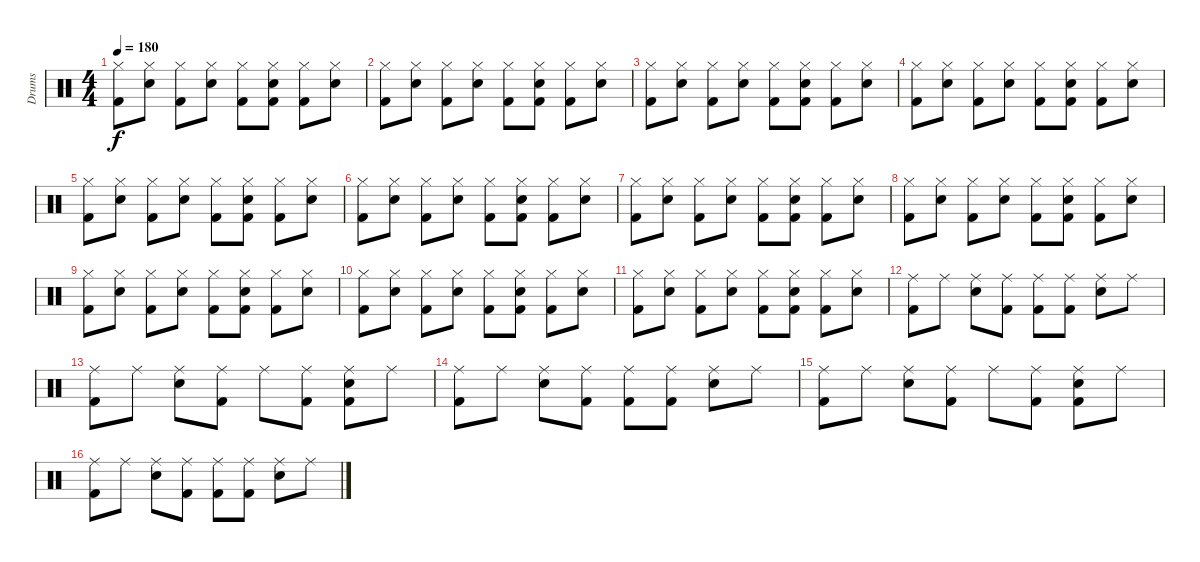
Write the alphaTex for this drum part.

\track ("Drums" "Drums") {instrument percussion}
\staff {score}
\articulation defaults
\ts (4 4)
\tempo 180
\clef neutral
\ks c
("Hi-Hat (closed)" "Kick (hit) 2").8{dy f} ("Hi-Hat (closed)" "Snare (hit) 2").8 ("Hi-Hat (closed)" "Kick (hit) 2").8 ("Hi-Hat (closed)" "Snare (hit) 2").8 ("Hi-Hat (closed)" "Kick (hit) 2").8 ("Hi-Hat (closed)" "Snare (hit) 2" "Kick (hit) 2").8 ("Hi-Hat (closed)" "Kick (hit) 2").8 ("Hi-Hat (closed)" "Snare (hit) 2").8 |
("Hi-Hat (closed)" "Kick (hit) 2").8 ("Hi-Hat (closed)" "Snare (hit) 2").8 ("Hi-Hat (closed)" "Kick (hit) 2").8 ("Hi-Hat (closed)" "Snare (hit) 2").8 ("Hi-Hat (closed)" "Kick (hit) 2").8 ("Hi-Hat (closed)" "Snare (hit) 2" "Kick (hit) 2").8 ("Hi-Hat (closed)" "Kick (hit) 2").8 ("Hi-Hat (closed)" "Snare (hit) 2").8 |
("Hi-Hat (closed)" "Kick (hit) 2").8 ("Hi-Hat (closed)" "Snare (hit) 2").8 ("Hi-Hat (closed)" "Kick (hit) 2").8 ("Hi-Hat (closed)" "Snare (hit) 2").8 ("Hi-Hat (closed)" "Kick (hit) 2").8 ("Hi-Hat (closed)" "Snare (hit) 2" "Kick (hit) 2").8 ("Hi-Hat (closed)" "Kick (hit) 2").8 ("Hi-Hat (closed)" "Snare (hit) 2").8 |
("Hi-Hat (closed)" "Kick (hit) 2").8 ("Hi-Hat (closed)" "Snare (hit) 2").8 ("Hi-Hat (closed)" "Kick (hit) 2").8 ("Hi-Hat (closed)" "Snare (hit) 2").8 ("Hi-Hat (closed)" "Kick (hit) 2").8 ("Hi-Hat (closed)" "Snare (hit) 2" "Kick (hit) 2").8 ("Hi-Hat (closed)" "Kick (hit) 2").8 ("Hi-Hat (closed)" "Snare (hit) 2").8 |
("Hi-Hat (closed)" "Kick (hit) 2").8 ("Hi-Hat (closed)" "Snare (hit) 2").8 ("Hi-Hat (closed)" "Kick (hit) 2").8 ("Hi-Hat (closed)" "Snare (hit) 2").8 ("Hi-Hat (closed)" "Kick (hit) 2").8 ("Hi-Hat (closed)" "Snare (hit) 2" "Kick (hit) 2").8 ("Hi-Hat (closed)" "Kick (hit) 2").8 ("Hi-Hat (closed)" "Snare (hit) 2").8 |
("Hi-Hat (closed)" "Kick (hit) 2").8 ("Hi-Hat (closed)" "Snare (hit) 2").8 ("Hi-Hat (closed)" "Kick (hit) 2").8 ("Hi-Hat (closed)" "Snare (hit) 2").8 ("Hi-Hat (closed)" "Kick (hit) 2").8 ("Hi-Hat (closed)" "Snare (hit) 2" "Kick (hit) 2").8 ("Hi-Hat (closed)" "Kick (hit) 2").8 ("Hi-Hat (closed)" "Snare (hit) 2").8 |
("Hi-Hat (closed)" "Kick (hit) 2").8 ("Hi-Hat (closed)" "Snare (hit) 2").8 ("Hi-Hat (closed)" "Kick (hit) 2").8 ("Hi-Hat (closed)" "Snare (hit) 2").8 ("Hi-Hat (closed)" "Kick (hit) 2").8 ("Hi-Hat (closed)" "Snare (hit) 2" "Kick (hit) 2").8 ("Hi-Hat (closed)" "Kick (hit) 2").8 ("Hi-Hat (closed)" "Snare (hit) 2").8 |
("Hi-Hat (closed)" "Kick (hit) 2").8 ("Hi-Hat (closed)" "Snare (hit) 2").8 ("Hi-Hat (closed)" "Kick (hit) 2").8 ("Hi-Hat (closed)" "Snare (hit) 2").8 ("Hi-Hat (closed)" "Kick (hit) 2").8 ("Hi-Hat (closed)" "Snare (hit) 2" "Kick (hit) 2").8 ("Hi-Hat (closed)" "Kick (hit) 2").8 ("Hi-Hat (closed)" "Snare (hit) 2").8 |
("Hi-Hat (closed)" "Kick (hit) 2").8 ("Hi-Hat (closed)" "Snare (hit) 2").8 ("Hi-Hat (closed)" "Kick (hit) 2").8 ("Hi-Hat (closed)" "Snare (hit) 2").8 ("Hi-Hat (closed)" "Kick (hit) 2").8 ("Hi-Hat (closed)" "Snare (hit) 2" "Kick (hit) 2").8 ("Hi-Hat (closed)" "Kick (hit) 2").8 ("Hi-Hat (closed)" "Snare (hit) 2").8 |
("Hi-Hat (closed)" "Kick (hit) 2").8 ("Hi-Hat (closed)" "Snare (hit) 2").8 ("Hi-Hat (closed)" "Kick (hit) 2").8 ("Hi-Hat (closed)" "Snare (hit) 2").8 ("Hi-Hat (closed)" "Kick (hit) 2").8 ("Hi-Hat (closed)" "Snare (hit) 2" "Kick (hit) 2").8 ("Hi-Hat (closed)" "Kick (hit) 2").8 ("Hi-Hat (closed)" "Snare (hit) 2").8 |
("Hi-Hat (closed)" "Kick (hit) 2").8 ("Hi-Hat (closed)" "Snare (hit) 2").8 ("Hi-Hat (closed)" "Kick (hit) 2").8 ("Hi-Hat (closed)" "Snare (hit) 2").8 ("Hi-Hat (closed)" "Kick (hit) 2").8 ("Hi-Hat (closed)" "Snare (hit) 2" "Kick (hit) 2").8 ("Hi-Hat (closed)" "Kick (hit) 2").8 ("Hi-Hat (closed)" "Snare (hit) 2").8 |
("Ride (middle)" "Kick (hit) 2").8 "Ride (middle)".8 ("Ride (middle)" "Snare (hit) 2").8 ("Ride (middle)" "Kick (hit) 2").8 ("Ride (middle)" "Kick (hit) 2").8 ("Ride (middle)" "Kick (hit) 2").8 ("Ride (middle)" "Snare (hit) 2").8 "Ride (middle)".8 |
("Ride (middle)" "Kick (hit) 2").8 "Ride (middle)".8 ("Ride (middle)" "Snare (hit) 2").8 ("Ride (middle)" "Kick (hit) 2").8 "Ride (middle)".8 ("Ride (middle)" "Kick (hit) 2").8 ("Ride (middle)" "Snare (hit) 2" "Kick (hit) 2").8 "Ride (middle)".8 |
("Ride (middle)" "Kick (hit) 2").8 "Ride (middle)".8 ("Ride (middle)" "Snare (hit) 2").8 ("Ride (middle)" "Kick (hit) 2").8 ("Ride (middle)" "Kick (hit) 2").8 ("Ride (middle)" "Kick (hit) 2").8 ("Ride (middle)" "Snare (hit) 2").8 "Ride (middle)".8 |
("Ride (middle)" "Kick (hit) 2").8 "Ride (middle)".8 ("Ride (middle)" "Snare (hit) 2").8 ("Ride (middle)" "Kick (hit) 2").8 "Ride (middle)".8 ("Ride (middle)" "Kick (hit) 2").8 ("Ride (middle)" "Snare (hit) 2" "Kick (hit) 2").8 "Ride (middle)".8 |
("Ride (middle)" "Kick (hit) 2").8 "Ride (middle)".8 ("Ride (middle)" "Snare (hit) 2").8 ("Ride (middle)" "Kick (hit) 2").8 ("Ride (middle)" "Kick (hit) 2").8 ("Ride (middle)" "Kick (hit) 2").8 ("Ride (middle)" "Snare (hit) 2").8 "Ride (middle)".8
